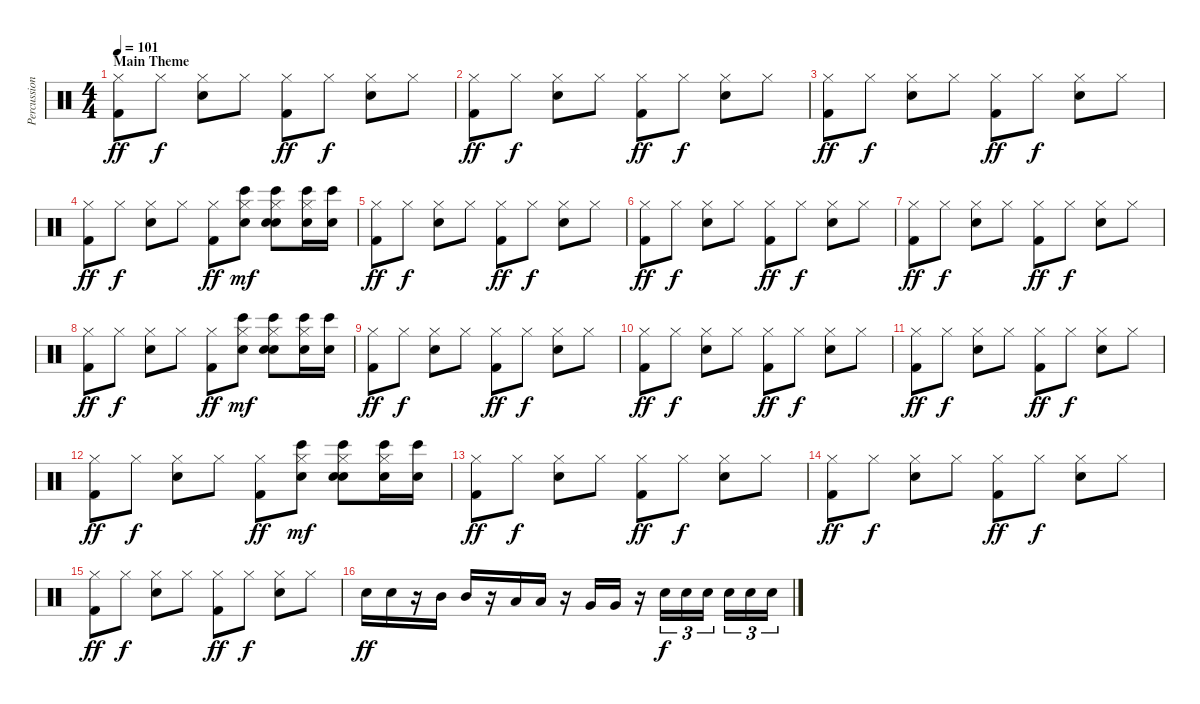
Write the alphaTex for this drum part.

\track ("Percussion" "Percussion") {instrument percussion}
\staff {score}
\articulation defaults
\ts (4 4)
\section ("" "Main Theme")
\tempo 101
\clef neutral
\ks c
("Hi-Hat (closed)" "Kick (hit) 2").8{dy ff} "Hi-Hat (closed)".8{dy f} ("Hi-Hat (closed)" "Electric Snare (hit)").8 "Hi-Hat (closed)".8 ("Hi-Hat (closed)" "Kick (hit) 2").8{dy ff} "Hi-Hat (closed)".8{dy f} ("Hi-Hat (closed)" "Electric Snare (hit)").8 "Hi-Hat (closed)".8 |
("Hi-Hat (closed)" "Kick (hit) 2").8{dy ff} "Hi-Hat (closed)".8{dy f} ("Hi-Hat (closed)" "Electric Snare (hit)").8 "Hi-Hat (closed)".8 ("Hi-Hat (closed)" "Kick (hit) 2").8{dy ff} "Hi-Hat (closed)".8{dy f} ("Hi-Hat (closed)" "Electric Snare (hit)").8 "Hi-Hat (closed)".8 |
("Hi-Hat (closed)" "Kick (hit) 2").8{dy ff} "Hi-Hat (closed)".8{dy f} ("Hi-Hat (closed)" "Electric Snare (hit)").8 "Hi-Hat (closed)".8 ("Hi-Hat (closed)" "Kick (hit) 2").8{dy ff} "Hi-Hat (closed)".8{dy f} ("Hi-Hat (closed)" "Electric Snare (hit)").8 "Hi-Hat (closed)".8 |
("Hi-Hat (closed)" "Kick (hit) 2").8{dy ff} "Hi-Hat (closed)".8{dy f} ("Hi-Hat (closed)" "Electric Snare (hit)").8 "Hi-Hat (closed)".8 ("Hi-Hat (closed)" "Kick (hit) 2").8{dy ff} ("Hi-Hat (closed)" "Bongo High (hit)" "Hand Clap (hit)").8{dy mf} ("Hi-Hat (closed)" "Bongo High (hit)" "Hand Clap (hit)" "Electric Snare (hit)").8 ("Hi-Hat (closed)" "Bongo High (hit)" "Hand Clap (hit)").16 ("Bongo High (hit)" "Hand Clap (hit)").16 |
("Hi-Hat (closed)" "Kick (hit) 2").8{dy ff} "Hi-Hat (closed)".8{dy f} ("Hi-Hat (closed)" "Electric Snare (hit)").8 "Hi-Hat (closed)".8 ("Hi-Hat (closed)" "Kick (hit) 2").8{dy ff} "Hi-Hat (closed)".8{dy f} ("Hi-Hat (closed)" "Electric Snare (hit)").8 "Hi-Hat (closed)".8 |
("Hi-Hat (closed)" "Kick (hit) 2").8{dy ff} "Hi-Hat (closed)".8{dy f} ("Hi-Hat (closed)" "Electric Snare (hit)").8 "Hi-Hat (closed)".8 ("Hi-Hat (closed)" "Kick (hit) 2").8{dy ff} "Hi-Hat (closed)".8{dy f} ("Hi-Hat (closed)" "Electric Snare (hit)").8 "Hi-Hat (closed)".8 |
("Hi-Hat (closed)" "Kick (hit) 2").8{dy ff} "Hi-Hat (closed)".8{dy f} ("Hi-Hat (closed)" "Electric Snare (hit)").8 "Hi-Hat (closed)".8 ("Hi-Hat (closed)" "Kick (hit) 2").8{dy ff} "Hi-Hat (closed)".8{dy f} ("Hi-Hat (closed)" "Electric Snare (hit)").8 "Hi-Hat (closed)".8 |
("Hi-Hat (closed)" "Kick (hit) 2").8{dy ff} "Hi-Hat (closed)".8{dy f} ("Hi-Hat (closed)" "Electric Snare (hit)").8 "Hi-Hat (closed)".8 ("Hi-Hat (closed)" "Kick (hit) 2").8{dy ff} ("Hi-Hat (closed)" "Bongo High (hit)" "Hand Clap (hit)").8{dy mf} ("Hi-Hat (closed)" "Bongo High (hit)" "Hand Clap (hit)" "Electric Snare (hit)").8 ("Hi-Hat (closed)" "Bongo High (hit)" "Hand Clap (hit)").16 ("Bongo High (hit)" "Hand Clap (hit)").16 |
("Hi-Hat (closed)" "Kick (hit) 2").8{dy ff} "Hi-Hat (closed)".8{dy f} ("Hi-Hat (closed)" "Electric Snare (hit)").8 "Hi-Hat (closed)".8 ("Hi-Hat (closed)" "Kick (hit) 2").8{dy ff} "Hi-Hat (closed)".8{dy f} ("Hi-Hat (closed)" "Electric Snare (hit)").8 "Hi-Hat (closed)".8 |
("Hi-Hat (closed)" "Kick (hit) 2").8{dy ff} "Hi-Hat (closed)".8{dy f} ("Hi-Hat (closed)" "Electric Snare (hit)").8 "Hi-Hat (closed)".8 ("Hi-Hat (closed)" "Kick (hit) 2").8{dy ff} "Hi-Hat (closed)".8{dy f} ("Hi-Hat (closed)" "Electric Snare (hit)").8 "Hi-Hat (closed)".8 |
("Hi-Hat (closed)" "Kick (hit) 2").8{dy ff} "Hi-Hat (closed)".8{dy f} ("Hi-Hat (closed)" "Electric Snare (hit)").8 "Hi-Hat (closed)".8 ("Hi-Hat (closed)" "Kick (hit) 2").8{dy ff} "Hi-Hat (closed)".8{dy f} ("Hi-Hat (closed)" "Electric Snare (hit)").8 "Hi-Hat (closed)".8 |
("Hi-Hat (closed)" "Kick (hit) 2").8{dy ff} "Hi-Hat (closed)".8{dy f} ("Hi-Hat (closed)" "Electric Snare (hit)").8 "Hi-Hat (closed)".8 ("Hi-Hat (closed)" "Kick (hit) 2").8{dy ff} ("Hi-Hat (closed)" "Bongo High (hit)" "Hand Clap (hit)").8{dy mf} ("Hi-Hat (closed)" "Bongo High (hit)" "Hand Clap (hit)" "Electric Snare (hit)").8 ("Hi-Hat (closed)" "Bongo High (hit)" "Hand Clap (hit)").16 ("Bongo High (hit)" "Hand Clap (hit)").16 |
("Hi-Hat (closed)" "Kick (hit) 2").8{dy ff} "Hi-Hat (closed)".8{dy f} ("Hi-Hat (closed)" "Electric Snare (hit)").8 "Hi-Hat (closed)".8 ("Hi-Hat (closed)" "Kick (hit) 2").8{dy ff} "Hi-Hat (closed)".8{dy f} ("Hi-Hat (closed)" "Electric Snare (hit)").8 "Hi-Hat (closed)".8 |
("Hi-Hat (closed)" "Kick (hit) 2").8{dy ff} "Hi-Hat (closed)".8{dy f} ("Hi-Hat (closed)" "Electric Snare (hit)").8 "Hi-Hat (closed)".8 ("Hi-Hat (closed)" "Kick (hit) 2").8{dy ff} "Hi-Hat (closed)".8{dy f} ("Hi-Hat (closed)" "Electric Snare (hit)").8 "Hi-Hat (closed)".8 |
("Hi-Hat (closed)" "Kick (hit) 2").8{dy ff} "Hi-Hat (closed)".8{dy f} ("Hi-Hat (closed)" "Electric Snare (hit)").8 "Hi-Hat (closed)".8 ("Hi-Hat (closed)" "Kick (hit) 2").8{dy ff} "Hi-Hat (closed)".8{dy f} ("Hi-Hat (closed)" "Electric Snare (hit)").8 "Hi-Hat (closed)".8 |
"Electric Snare (hit)".16{dy ff} "Electric Snare (hit)".16 r.16 "Mid Tom (hit)".16 "Mid Tom (hit)".16 r.16 "Low Tom (hit)".16 "Low Tom (hit)".16 r.16 "Very Low Tom (hit)".16 "Very Low Tom (hit)".16 r.16 "Electric Snare (hit)".16{tu (3 2) dy f} "Electric Snare (hit)".16{tu (3 2)} "Electric Snare (hit)".16{tu (3 2)} "Electric Snare (hit)".16{tu (3 2)} "Electric Snare (hit)".16{tu (3 2)} "Electric Snare (hit)".16{tu (3 2)}
